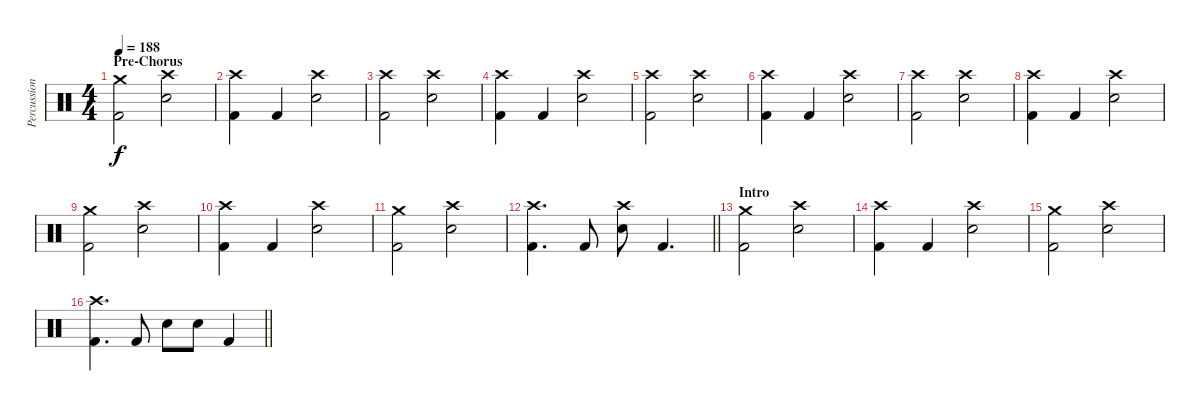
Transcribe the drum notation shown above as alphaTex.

\track ("Percussion" "Percussion") {instrument percussion}
\staff {score}
\articulation defaults
\ts (4 4)
\section ("" "Pre-Chorus")
\tempo 188
\clef neutral
\ks c
("Crash medium (hit)" "Kick (hit) 2").2{dy f} ("Crash high (hit)" "Snare (hit) 2").2 |
("Crash high (hit)" "Kick (hit) 2").4 "Kick (hit) 2".4 ("Crash high (hit)" "Snare (hit) 2").2 |
("Crash high (hit)" "Kick (hit) 2").2 ("Crash high (hit)" "Snare (hit) 2").2 |
("Crash high (hit)" "Kick (hit) 2").4 "Kick (hit) 2".4 ("Crash high (hit)" "Snare (hit) 2").2 |
("Crash high (hit)" "Kick (hit) 2").2 ("Crash high (hit)" "Snare (hit) 2").2 |
("Crash high (hit)" "Kick (hit) 2").4 "Kick (hit) 2".4 ("Crash high (hit)" "Snare (hit) 2").2 |
("Crash high (hit)" "Kick (hit) 2").2 ("Crash high (hit)" "Snare (hit) 2").2 |
("Crash high (hit)" "Kick (hit) 2").4 "Kick (hit) 2".4 ("Crash high (hit)" "Snare (hit) 2").2 |
("Crash medium (hit)" "Kick (hit) 2").2 ("Crash high (hit)" "Snare (hit) 2").2 |
("Crash high (hit)" "Kick (hit) 2").4 "Kick (hit) 2".4 ("Crash high (hit)" "Snare (hit) 2").2 |
("Crash medium (hit)" "Kick (hit) 2").2 ("Crash high (hit)" "Snare (hit) 2").2 |
\barLineRight lightlight
("Crash high (hit)" "Kick (hit) 2").4{d} "Kick (hit) 2".8 ("Crash high (hit)" "Snare (hit) 2").8 "Kick (hit) 2".4{d} |
\section ("" "Intro")
("Crash medium (hit)" "Kick (hit) 2").2 ("Crash high (hit)" "Snare (hit) 2").2 |
("Crash high (hit)" "Kick (hit) 2").4 "Kick (hit) 2".4 ("Crash high (hit)" "Snare (hit) 2").2 |
("Crash medium (hit)" "Kick (hit) 2").2 ("Crash high (hit)" "Snare (hit) 2").2 |
\barLineRight lightlight
("Crash high (hit)" "Kick (hit) 2").4{d} "Kick (hit) 2".8 "Snare (hit) 2".8 "Snare (hit) 2".8 "Kick (hit) 2".4
